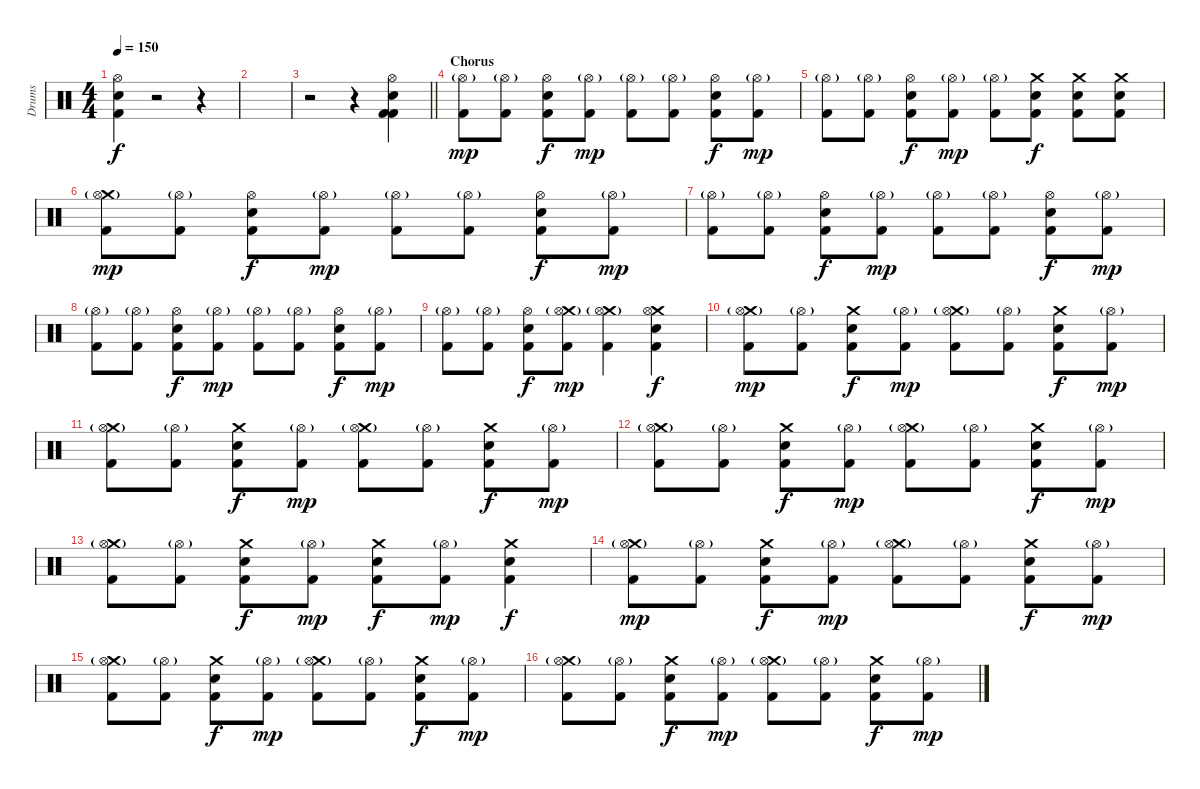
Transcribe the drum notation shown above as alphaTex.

\track ("Drums" "Drums") {instrument percussion}
\staff {score}
\articulation defaults
\ts (4 4)
\tempo 150
\clef neutral
\ks c
("Hi-Hat (open)" "Electric Snare (hit)" "Kick (hit) 2").4{dy f} r.2 r.4 |
|
\barLineRight lightlight
r.2 r.4 ("Hi-Hat (open)" "Electric Snare (hit)" "Kick (hit) 2" "Kick (hit) 2").4 |
\section ("" "Chorus")
("Hi-Hat (open)"{g} "Kick (hit) 2").8{dy mp} ("Hi-Hat (open)"{g} "Kick (hit) 2").8 ("Hi-Hat (open)" "Electric Snare (hit)" "Kick (hit) 2").8{dy f} ("Hi-Hat (open)"{g} "Kick (hit) 2").8{dy mp} ("Hi-Hat (open)"{g} "Kick (hit) 2").8 ("Hi-Hat (open)"{g} "Kick (hit) 2").8 ("Hi-Hat (open)" "Electric Snare (hit)" "Kick (hit) 2").8{dy f} ("Hi-Hat (open)"{g} "Kick (hit) 2").8{dy mp} |
("Hi-Hat (open)"{g} "Kick (hit) 2").8 ("Hi-Hat (open)"{g} "Kick (hit) 2").8 ("Hi-Hat (open)" "Electric Snare (hit)" "Kick (hit) 2").8{dy f} ("Hi-Hat (open)"{g} "Kick (hit) 2").8{dy mp} ("Hi-Hat (open)"{g} "Kick (hit) 2").8 ("Crash medium (hit)" "Electric Snare (hit)" "Kick (hit) 2").8{dy f} ("Crash medium (hit)" "Electric Snare (hit)" "Kick (hit) 2").8 ("Crash medium (hit)" "Electric Snare (hit)" "Kick (hit) 2").8 |
("Crash medium (hit)" "Hi-Hat (open)"{g} "Kick (hit) 2").8{dy mp} ("Hi-Hat (open)"{g} "Kick (hit) 2").8 ("Hi-Hat (open)" "Electric Snare (hit)" "Kick (hit) 2").8{dy f} ("Hi-Hat (open)"{g} "Kick (hit) 2").8{dy mp} ("Hi-Hat (open)"{g} "Kick (hit) 2").8 ("Hi-Hat (open)"{g} "Kick (hit) 2").8 ("Hi-Hat (open)" "Electric Snare (hit)" "Kick (hit) 2").8{dy f} ("Hi-Hat (open)"{g} "Kick (hit) 2").8{dy mp} |
("Hi-Hat (open)"{g} "Kick (hit) 2").8 ("Hi-Hat (open)"{g} "Kick (hit) 2").8 ("Hi-Hat (open)" "Electric Snare (hit)" "Kick (hit) 2").8{dy f} ("Hi-Hat (open)"{g} "Kick (hit) 2").8{dy mp} ("Hi-Hat (open)"{g} "Kick (hit) 2").8 ("Hi-Hat (open)"{g} "Kick (hit) 2").8 ("Hi-Hat (open)" "Electric Snare (hit)" "Kick (hit) 2").8{dy f} ("Hi-Hat (open)"{g} "Kick (hit) 2").8{dy mp} |
("Hi-Hat (open)"{g} "Kick (hit) 2").8 ("Hi-Hat (open)"{g} "Kick (hit) 2").8 ("Hi-Hat (open)" "Electric Snare (hit)" "Kick (hit) 2").8{dy f} ("Hi-Hat (open)"{g} "Kick (hit) 2").8{dy mp} ("Hi-Hat (open)"{g} "Kick (hit) 2").8 ("Hi-Hat (open)"{g} "Kick (hit) 2").8 ("Hi-Hat (open)" "Electric Snare (hit)" "Kick (hit) 2").8{dy f} ("Hi-Hat (open)"{g} "Kick (hit) 2").8{dy mp} |
("Hi-Hat (open)"{g} "Kick (hit) 2").8 ("Hi-Hat (open)"{g} "Kick (hit) 2").8 ("Hi-Hat (open)" "Electric Snare (hit)" "Kick (hit) 2").8{dy f} ("Crash medium (hit)" "Hi-Hat (open)"{g} "Kick (hit) 2").8{dy mp} ("Crash medium (hit)" "Hi-Hat (open)"{g} "Kick (hit) 2").4 ("Crash medium (hit)" "Hi-Hat (open)" "Electric Snare (hit)" "Kick (hit) 2").4{dy f} |
("Crash medium (hit)" "Hi-Hat (open)"{g} "Kick (hit) 2").8{dy mp} ("Hi-Hat (open)"{g} "Kick (hit) 2").8 ("Crash medium (hit)" "Electric Snare (hit)" "Kick (hit) 2").8{dy f} ("Hi-Hat (open)"{g} "Kick (hit) 2").8{dy mp} ("Crash medium (hit)" "Hi-Hat (open)"{g} "Kick (hit) 2").8 ("Hi-Hat (open)"{g} "Kick (hit) 2").8 ("Crash medium (hit)" "Electric Snare (hit)" "Kick (hit) 2").8{dy f} ("Hi-Hat (open)"{g} "Kick (hit) 2").8{dy mp} |
("Crash medium (hit)" "Hi-Hat (open)"{g} "Kick (hit) 2").8 ("Hi-Hat (open)"{g} "Kick (hit) 2").8 ("Crash medium (hit)" "Electric Snare (hit)" "Kick (hit) 2").8{dy f} ("Hi-Hat (open)"{g} "Kick (hit) 2").8{dy mp} ("Crash medium (hit)" "Hi-Hat (open)"{g} "Kick (hit) 2").8 ("Hi-Hat (open)"{g} "Kick (hit) 2").8 ("Crash medium (hit)" "Electric Snare (hit)" "Kick (hit) 2").8{dy f} ("Hi-Hat (open)"{g} "Kick (hit) 2").8{dy mp} |
("Crash medium (hit)" "Hi-Hat (open)"{g} "Kick (hit) 2").8 ("Hi-Hat (open)"{g} "Kick (hit) 2").8 ("Crash medium (hit)" "Electric Snare (hit)" "Kick (hit) 2").8{dy f} ("Hi-Hat (open)"{g} "Kick (hit) 2").8{dy mp} ("Crash medium (hit)" "Hi-Hat (open)"{g} "Kick (hit) 2").8 ("Hi-Hat (open)"{g} "Kick (hit) 2").8 ("Crash medium (hit)" "Electric Snare (hit)" "Kick (hit) 2").8{dy f} ("Hi-Hat (open)"{g} "Kick (hit) 2").8{dy mp} |
("Crash medium (hit)" "Hi-Hat (open)"{g} "Kick (hit) 2").8 ("Hi-Hat (open)"{g} "Kick (hit) 2").8 ("Crash medium (hit)" "Electric Snare (hit)" "Kick (hit) 2").8{dy f} ("Hi-Hat (open)"{g} "Kick (hit) 2").8{dy mp} ("Crash medium (hit)" "Electric Snare (hit)" "Kick (hit) 2").8{dy f} ("Hi-Hat (open)"{g} "Kick (hit) 2").8{dy mp} ("Crash medium (hit)" "Electric Snare (hit)" "Kick (hit) 2").4{dy f} |
("Crash medium (hit)" "Hi-Hat (open)"{g} "Kick (hit) 2").8{dy mp} ("Hi-Hat (open)"{g} "Kick (hit) 2").8 ("Crash medium (hit)" "Electric Snare (hit)" "Kick (hit) 2").8{dy f} ("Hi-Hat (open)"{g} "Kick (hit) 2").8{dy mp} ("Crash medium (hit)" "Hi-Hat (open)"{g} "Kick (hit) 2").8 ("Hi-Hat (open)"{g} "Kick (hit) 2").8 ("Crash medium (hit)" "Electric Snare (hit)" "Kick (hit) 2").8{dy f} ("Hi-Hat (open)"{g} "Kick (hit) 2").8{dy mp} |
("Crash medium (hit)" "Hi-Hat (open)"{g} "Kick (hit) 2").8 ("Hi-Hat (open)"{g} "Kick (hit) 2").8 ("Crash medium (hit)" "Electric Snare (hit)" "Kick (hit) 2").8{dy f} ("Hi-Hat (open)"{g} "Kick (hit) 2").8{dy mp} ("Crash medium (hit)" "Hi-Hat (open)"{g} "Kick (hit) 2").8 ("Hi-Hat (open)"{g} "Kick (hit) 2").8 ("Crash medium (hit)" "Electric Snare (hit)" "Kick (hit) 2").8{dy f} ("Hi-Hat (open)"{g} "Kick (hit) 2").8{dy mp} |
("Crash medium (hit)" "Hi-Hat (open)"{g} "Kick (hit) 2").8 ("Hi-Hat (open)"{g} "Kick (hit) 2").8 ("Crash medium (hit)" "Electric Snare (hit)" "Kick (hit) 2").8{dy f} ("Hi-Hat (open)"{g} "Kick (hit) 2").8{dy mp} ("Crash medium (hit)" "Hi-Hat (open)"{g} "Kick (hit) 2").8 ("Hi-Hat (open)"{g} "Kick (hit) 2").8 ("Crash medium (hit)" "Electric Snare (hit)" "Kick (hit) 2").8{dy f} ("Hi-Hat (open)"{g} "Kick (hit) 2").8{dy mp}
